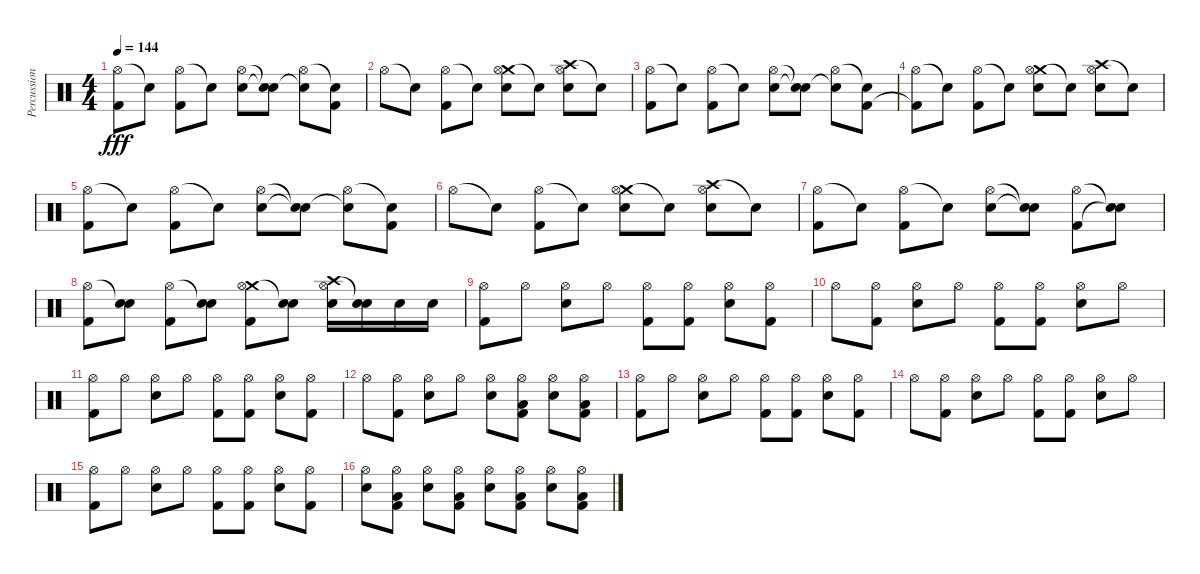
\track ("Percussion" "Percussion") {instrument percussion}
\staff {score}
\articulation defaults
\ts (4 4)
\tempo 144
\clef neutral
\ks c
("Hi-Hat (open)" "Kick (hit) 2").8{dy fff} "Snare (hit)"{t}.8 ("Hi-Hat (open)" "Kick (hit) 2").8 "Snare (hit)"{t}.8 ("Hi-Hat (open)" "Electric Snare (hit)").8 ("Snare (hit)"{t} "Snare (hit)"{t}).8 ("Hi-Hat (open)" "Electric Snare (hit)"{t}).8 ("Snare (hit)"{t} "Kick (hit) 2").8 |
"Hi-Hat (open)".8 "Snare (hit)"{t}.8 ("Hi-Hat (open)" "Kick (hit) 2").8 "Snare (hit)"{t}.8 ("Crash medium (hit)" "Hi-Hat (open)" "Electric Snare (hit)").8 "Snare (hit)"{t}.8 ("Crash high (hit)" "Hi-Hat (open)" "Electric Snare (hit)").8 "Snare (hit)"{t}.8 |
("Hi-Hat (open)" "Kick (hit) 2").8 "Snare (hit)"{t}.8 ("Hi-Hat (open)" "Kick (hit) 2").8 "Snare (hit)"{t}.8 ("Hi-Hat (open)" "Electric Snare (hit)").8 ("Snare (hit)"{t} "Snare (hit)"{t}).8 ("Hi-Hat (open)" "Electric Snare (hit)"{t}).8 ("Snare (hit)"{t} "Kick (hit) 2").8 |
("Hi-Hat (open)" "Kick (hit) 2"{t}).8 "Snare (hit)"{t}.8 ("Hi-Hat (open)" "Kick (hit) 2").8 "Snare (hit)"{t}.8 ("Crash medium (hit)" "Hi-Hat (open)" "Electric Snare (hit)").8 "Snare (hit)"{t}.8 ("Crash high (hit)" "Hi-Hat (open)" "Electric Snare (hit)").8 "Snare (hit)"{t}.8 |
("Hi-Hat (open)" "Kick (hit) 2").8 "Snare (hit)"{t}.8 ("Hi-Hat (open)" "Kick (hit) 2").8 "Snare (hit)"{t}.8 ("Hi-Hat (open)" "Electric Snare (hit)").8 ("Snare (hit)"{t} "Snare (hit)"{t}).8 ("Hi-Hat (open)" "Electric Snare (hit)"{t}).8 ("Snare (hit)"{t} "Kick (hit) 2").8 |
"Hi-Hat (open)".8 "Snare (hit)"{t}.8 ("Hi-Hat (open)" "Kick (hit) 2").8 "Snare (hit)"{t}.8 ("Crash medium (hit)" "Hi-Hat (open)" "Electric Snare (hit)").8 "Snare (hit)"{t}.8 ("Crash high (hit)" "Hi-Hat (open)" "Electric Snare (hit)").8 "Snare (hit)"{t}.8 |
("Hi-Hat (open)" "Kick (hit) 2").8 "Snare (hit)"{t}.8 ("Hi-Hat (open)" "Kick (hit) 2").8 "Snare (hit)"{t}.8 ("Hi-Hat (open)" "Electric Snare (hit)").8 ("Snare (hit)"{t} "Snare (hit)"{t}).8 ("Hi-Hat (open)" "Kick (hit) 2").8 ("Snare (hit)"{t} "Electric Snare (hit)"{t}).8 |
("Hi-Hat (open)" "Kick (hit) 2").8 ("Snare (hit)"{t} "Electric Snare (hit)").8 ("Hi-Hat (open)" "Kick (hit) 2").8 ("Snare (hit)"{t} "Electric Snare (hit)").8 ("Crash medium (hit)" "Hi-Hat (open)" "Kick (hit) 2").8 ("Snare (hit)"{t} "Electric Snare (hit)").8 ("Crash high (hit)" "Hi-Hat (open)" "Electric Snare (hit)").16 ("Snare (hit)"{t} "Electric Snare (hit)").16 "Electric Snare (hit)".16 "Electric Snare (hit)".16 |
("Hi-Hat (open)" "Kick (hit) 2").8 "Hi-Hat (open)".8 ("Hi-Hat (open)" "Electric Snare (hit)").8 "Hi-Hat (open)".8 ("Hi-Hat (open)" "Kick (hit) 2").8 ("Hi-Hat (open)" "Kick (hit) 2").8 ("Hi-Hat (open)" "Electric Snare (hit)").8 ("Hi-Hat (open)" "Kick (hit) 2").8 |
"Hi-Hat (open)".8 ("Hi-Hat (open)" "Kick (hit) 2").8 ("Hi-Hat (open)" "Electric Snare (hit)").8 "Hi-Hat (open)".8 ("Hi-Hat (open)" "Kick (hit) 2").8 ("Hi-Hat (open)" "Kick (hit) 2").8 ("Hi-Hat (open)" "Electric Snare (hit)").8 "Hi-Hat (open)".8 |
("Hi-Hat (open)" "Kick (hit) 2").8 "Hi-Hat (open)".8 ("Hi-Hat (open)" "Electric Snare (hit)").8 "Hi-Hat (open)".8 ("Hi-Hat (open)" "Kick (hit) 2").8 ("Hi-Hat (open)" "Kick (hit) 2").8 ("Hi-Hat (open)" "Electric Snare (hit)").8 ("Hi-Hat (open)" "Kick (hit) 2").8 |
"Hi-Hat (open)".8 ("Hi-Hat (open)" "Kick (hit) 2").8 ("Hi-Hat (open)" "Electric Snare (hit)").8 "Hi-Hat (open)".8 ("Hi-Hat (open)" "Electric Snare (hit)").8 ("Hi-Hat (open)" "Kick (hit) 2" "Low Floor Tom (hit)").8 ("Hi-Hat (open)" "Electric Snare (hit)").8 ("Hi-Hat (open)" "Kick (hit) 2" "Low Floor Tom (hit)").8 |
("Hi-Hat (open)" "Kick (hit) 2").8 "Hi-Hat (open)".8 ("Hi-Hat (open)" "Electric Snare (hit)").8 "Hi-Hat (open)".8 ("Hi-Hat (open)" "Kick (hit) 2").8 ("Hi-Hat (open)" "Kick (hit) 2").8 ("Hi-Hat (open)" "Electric Snare (hit)").8 ("Hi-Hat (open)" "Kick (hit) 2").8 |
"Hi-Hat (open)".8 ("Hi-Hat (open)" "Kick (hit) 2").8 ("Hi-Hat (open)" "Electric Snare (hit)").8 "Hi-Hat (open)".8 ("Hi-Hat (open)" "Kick (hit) 2").8 ("Hi-Hat (open)" "Kick (hit) 2").8 ("Hi-Hat (open)" "Electric Snare (hit)").8 "Hi-Hat (open)".8 |
("Hi-Hat (open)" "Kick (hit) 2").8 "Hi-Hat (open)".8 ("Hi-Hat (open)" "Electric Snare (hit)").8 "Hi-Hat (open)".8 ("Hi-Hat (open)" "Kick (hit) 2").8 ("Hi-Hat (open)" "Kick (hit) 2").8 ("Hi-Hat (open)" "Electric Snare (hit)").8 ("Hi-Hat (open)" "Kick (hit) 2").8 |
("Hi-Hat (open)" "Electric Snare (hit)").8 ("Hi-Hat (open)" "Kick (hit) 2" "Low Floor Tom (hit)").8 ("Hi-Hat (open)" "Electric Snare (hit)").8 ("Hi-Hat (open)" "Kick (hit) 2" "Low Floor Tom (hit)").8 ("Hi-Hat (open)" "Electric Snare (hit)").8 ("Hi-Hat (open)" "Kick (hit) 2" "Low Floor Tom (hit)").8 ("Hi-Hat (open)" "Electric Snare (hit)").8 ("Hi-Hat (open)" "Kick (hit) 2" "Low Floor Tom (hit)").8
